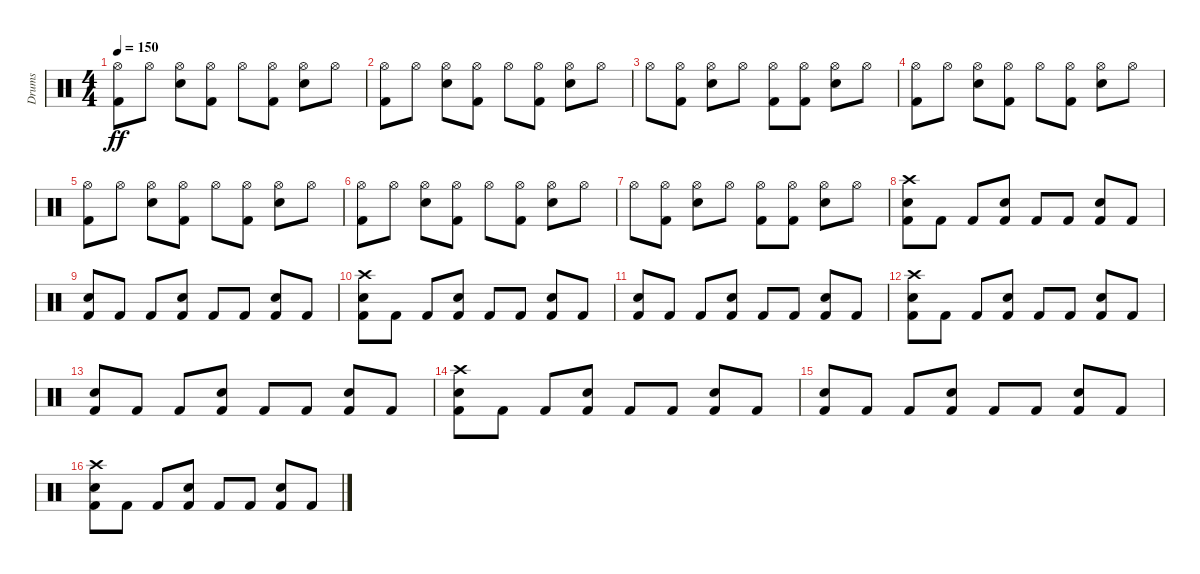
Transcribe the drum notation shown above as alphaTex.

\track ("Drums" "Drums") {instrument percussion}
\staff {score}
\articulation defaults
\ts (4 4)
\tempo 150
\clef neutral
\ks c
("Kick (hit) 2" "Hi-Hat (open)").8{dy ff} "Hi-Hat (open)".8 ("Snare (hit) 2" "Hi-Hat (open)").8 ("Kick (hit) 2" "Hi-Hat (open)").8 "Hi-Hat (open)".8 ("Kick (hit) 2" "Hi-Hat (open)").8 ("Snare (hit) 2" "Hi-Hat (open)").8 "Hi-Hat (open)".8 |
("Kick (hit) 2" "Hi-Hat (open)").8 "Hi-Hat (open)".8 ("Snare (hit) 2" "Hi-Hat (open)").8 ("Kick (hit) 2" "Hi-Hat (open)").8 "Hi-Hat (open)".8 ("Kick (hit) 2" "Hi-Hat (open)").8 ("Snare (hit) 2" "Hi-Hat (open)").8 "Hi-Hat (open)".8 |
"Hi-Hat (open)".8 ("Kick (hit) 2" "Hi-Hat (open)").8 ("Snare (hit) 2" "Hi-Hat (open)").8 "Hi-Hat (open)".8 ("Kick (hit) 2" "Hi-Hat (open)").8 ("Kick (hit) 2" "Hi-Hat (open)").8 ("Snare (hit) 2" "Hi-Hat (open)").8 "Hi-Hat (open)".8 |
("Kick (hit) 2" "Hi-Hat (open)").8 "Hi-Hat (open)".8 ("Snare (hit) 2" "Hi-Hat (open)").8 ("Kick (hit) 2" "Hi-Hat (open)").8 "Hi-Hat (open)".8 ("Kick (hit) 2" "Hi-Hat (open)").8 ("Snare (hit) 2" "Hi-Hat (open)").8 "Hi-Hat (open)".8 |
("Kick (hit) 2" "Hi-Hat (open)").8 "Hi-Hat (open)".8 ("Snare (hit) 2" "Hi-Hat (open)").8 ("Kick (hit) 2" "Hi-Hat (open)").8 "Hi-Hat (open)".8 ("Kick (hit) 2" "Hi-Hat (open)").8 ("Snare (hit) 2" "Hi-Hat (open)").8 "Hi-Hat (open)".8 |
("Kick (hit) 2" "Hi-Hat (open)").8 "Hi-Hat (open)".8 ("Snare (hit) 2" "Hi-Hat (open)").8 ("Kick (hit) 2" "Hi-Hat (open)").8 "Hi-Hat (open)".8 ("Kick (hit) 2" "Hi-Hat (open)").8 ("Snare (hit) 2" "Hi-Hat (open)").8 "Hi-Hat (open)".8 |
"Hi-Hat (open)".8 ("Kick (hit) 2" "Hi-Hat (open)").8 ("Snare (hit) 2" "Hi-Hat (open)").8 "Hi-Hat (open)".8 ("Kick (hit) 2" "Hi-Hat (open)").8 ("Kick (hit) 2" "Hi-Hat (open)").8 ("Snare (hit) 2" "Hi-Hat (open)").8 "Hi-Hat (open)".8 |
("Kick (hit) 2" "Snare (hit) 2" "Crash high (hit)").8 "Kick (hit) 2".8 "Kick (hit) 2".8 ("Kick (hit) 2" "Snare (hit) 2").8 "Kick (hit) 2".8 "Kick (hit) 2".8 ("Kick (hit) 2" "Snare (hit) 2").8 "Kick (hit) 2".8 |
("Kick (hit) 2" "Snare (hit) 2").8 "Kick (hit) 2".8 "Kick (hit) 2".8 ("Kick (hit) 2" "Snare (hit) 2").8 "Kick (hit) 2".8 "Kick (hit) 2".8 ("Kick (hit) 2" "Snare (hit) 2").8 "Kick (hit) 2".8 |
("Kick (hit) 2" "Snare (hit) 2" "Crash high (hit)").8 "Kick (hit) 2".8 "Kick (hit) 2".8 ("Kick (hit) 2" "Snare (hit) 2").8 "Kick (hit) 2".8 "Kick (hit) 2".8 ("Kick (hit) 2" "Snare (hit) 2").8 "Kick (hit) 2".8 |
("Kick (hit) 2" "Snare (hit) 2").8 "Kick (hit) 2".8 "Kick (hit) 2".8 ("Kick (hit) 2" "Snare (hit) 2").8 "Kick (hit) 2".8 "Kick (hit) 2".8 ("Kick (hit) 2" "Snare (hit) 2").8 "Kick (hit) 2".8 |
("Kick (hit) 2" "Snare (hit) 2" "Crash high (hit)").8 "Kick (hit) 2".8 "Kick (hit) 2".8 ("Kick (hit) 2" "Snare (hit) 2").8 "Kick (hit) 2".8 "Kick (hit) 2".8 ("Kick (hit) 2" "Snare (hit) 2").8 "Kick (hit) 2".8 |
("Kick (hit) 2" "Snare (hit) 2").8 "Kick (hit) 2".8 "Kick (hit) 2".8 ("Kick (hit) 2" "Snare (hit) 2").8 "Kick (hit) 2".8 "Kick (hit) 2".8 ("Kick (hit) 2" "Snare (hit) 2").8 "Kick (hit) 2".8 |
("Kick (hit) 2" "Snare (hit) 2" "Crash high (hit)").8 "Kick (hit) 2".8 "Kick (hit) 2".8 ("Kick (hit) 2" "Snare (hit) 2").8 "Kick (hit) 2".8 "Kick (hit) 2".8 ("Kick (hit) 2" "Snare (hit) 2").8 "Kick (hit) 2".8 |
("Kick (hit) 2" "Snare (hit) 2").8 "Kick (hit) 2".8 "Kick (hit) 2".8 ("Kick (hit) 2" "Snare (hit) 2").8 "Kick (hit) 2".8 "Kick (hit) 2".8 ("Kick (hit) 2" "Snare (hit) 2").8 "Kick (hit) 2".8 |
("Kick (hit) 2" "Snare (hit) 2" "Crash high (hit)").8 "Kick (hit) 2".8 "Kick (hit) 2".8 ("Kick (hit) 2" "Snare (hit) 2").8 "Kick (hit) 2".8 "Kick (hit) 2".8 ("Kick (hit) 2" "Snare (hit) 2").8 "Kick (hit) 2".8
